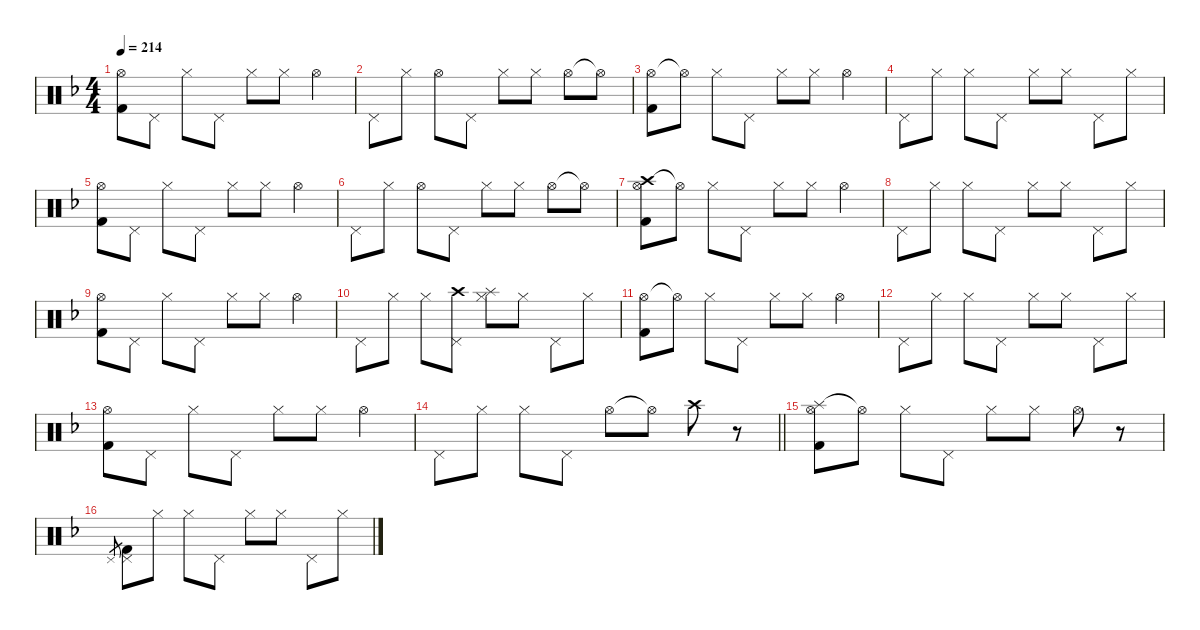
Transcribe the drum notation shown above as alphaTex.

\hideDynamics
\bracketExtendMode nobrackets
\singleTrackTrackNamePolicy hidden
\multiTrackTrackNamePolicy hidden
\firstSystemTrackNameMode fullname
\firstSystemTrackNameOrientation horizontal
\otherSystemsTrackNameOrientation horizontal
\track ("Drumkit" "Drums") {defaultSystemsLayout 4 instrument percussion}
\staff {score}
\articulation defaults
\ts (4 4)
\tempo 214
\clef neutral
\ks dminor
("Hi-Hat (open)"{acc forcenatural} "Kick (hit) 2"{acc forcenatural}).8{dy mf beam Down} "Pedal Hi-Hat (hit)"{acc forcenatural}.8{beam Down} "Hi-Hat (closed)"{acc forcenatural}.8{dy mp beam Down} "Pedal Hi-Hat (hit)"{acc forcenatural}.8{beam Down} "Hi-Hat (closed)"{acc forcenatural}.8{beam Down} "Hi-Hat (closed)"{acc forcenatural}.8{beam Down} "Hi-Hat (open)"{acc forcenatural}.4{dy mf beam Down} |
"Pedal Hi-Hat (hit)"{acc forcenatural}.8{beam Down} "Hi-Hat (closed)"{acc forcenatural}.8{dy mp beam Down} "Hi-Hat (open)"{acc forcenatural}.8{dy mf beam Down} "Pedal Hi-Hat (hit)"{acc forcenatural}.8{dy f beam Down} "Hi-Hat (closed)"{acc forcenatural}.8{dy mp beam Down} "Hi-Hat (closed)"{acc forcenatural}.8{beam Down} "Hi-Hat (open)"{acc forcenatural}.8{dy mf beam Down} "Hi-Hat (open)"{t acc forcenatural}.8{dy f beam Down} |
("Hi-Hat (open)"{acc forcenatural} "Kick (hit) 2"{acc forcenatural}).8{dy mf beam Down} "Hi-Hat (open)"{t acc forcenatural}.8{dy f beam Down} "Hi-Hat (closed)"{acc forcenatural}.8{dy mp beam Down} "Pedal Hi-Hat (hit)"{acc forcenatural}.8{beam Down} "Hi-Hat (closed)"{acc forcenatural}.8{beam Down} "Hi-Hat (closed)"{acc forcenatural}.8{beam Down} "Hi-Hat (open)"{acc forcenatural}.4{dy mf beam Down} |
"Pedal Hi-Hat (hit)"{acc forcenatural}.8{beam Down} "Hi-Hat (closed)"{acc forcenatural}.8{dy mp beam Down} "Hi-Hat (closed)"{acc forcenatural}.8{beam Down} "Pedal Hi-Hat (hit)"{acc forcenatural}.8{dy mf beam Down} "Hi-Hat (closed)"{acc forcenatural}.8{dy mp beam Down} "Hi-Hat (closed)"{acc forcenatural}.8{beam Down} "Pedal Hi-Hat (hit)"{acc forcenatural}.8{dy mf beam Down} "Hi-Hat (closed)"{acc forcenatural}.8{dy mp beam Down} |
("Hi-Hat (open)"{acc forcenatural} "Kick (hit) 2"{acc forcenatural}).8{dy mf beam Down} "Pedal Hi-Hat (hit)"{acc forcenatural}.8{beam Down} "Hi-Hat (closed)"{acc forcenatural}.8{dy mp beam Down} "Pedal Hi-Hat (hit)"{acc forcenatural}.8{beam Down} "Hi-Hat (closed)"{acc forcenatural}.8{beam Down} "Hi-Hat (closed)"{acc forcenatural}.8{beam Down} "Hi-Hat (open)"{acc forcenatural}.4{dy mf beam Down} |
"Pedal Hi-Hat (hit)"{acc forcenatural}.8{beam Down} "Hi-Hat (closed)"{acc forcenatural}.8{dy mp beam Down} "Hi-Hat (open)"{acc forcenatural}.8{dy mf beam Down} "Pedal Hi-Hat (hit)"{acc forcenatural}.8{dy f beam Down} "Hi-Hat (closed)"{acc forcenatural}.8{dy mp beam Down} "Hi-Hat (closed)"{acc forcenatural}.8{beam Down} "Hi-Hat (open)"{acc forcenatural}.8{dy mf beam Down} "Hi-Hat (open)"{t acc forcenatural}.8{dy f beam Down} |
("Crash high (hit)"{acc forcenatural} "Hi-Hat (open)"{acc forcenatural} "Kick (hit) 2"{acc forcenatural}).8{dy mp beam Down} "Hi-Hat (open)"{t acc forcenatural}.8{dy f beam Down} "Hi-Hat (closed)"{acc forcenatural}.8{dy mp beam Down} "Pedal Hi-Hat (hit)"{acc forcenatural}.8{beam Down} "Hi-Hat (closed)"{acc forcenatural}.8{beam Down} "Hi-Hat (closed)"{acc forcenatural}.8{beam Down} "Hi-Hat (open)"{acc forcenatural}.4{dy mf beam Down} |
"Pedal Hi-Hat (hit)"{acc forcenatural}.8{beam Down} "Hi-Hat (closed)"{acc forcenatural}.8{dy mp beam Down} "Hi-Hat (closed)"{acc forcenatural}.8{beam Down} "Pedal Hi-Hat (hit)"{acc forcenatural}.8{dy mf beam Down} "Hi-Hat (closed)"{acc forcenatural}.8{dy mp beam Down} "Hi-Hat (closed)"{acc forcenatural}.8{beam Down} "Pedal Hi-Hat (hit)"{acc forcenatural}.8{dy mf beam Down} "Hi-Hat (closed)"{acc forcenatural}.8{dy mp beam Down} |
("Hi-Hat (open)"{acc forcenatural} "Kick (hit) 2"{acc forcenatural}).8{dy mf beam Down} "Pedal Hi-Hat (hit)"{acc forcenatural}.8{beam Down} "Hi-Hat (closed)"{acc forcenatural}.8{dy mp beam Down} "Pedal Hi-Hat (hit)"{acc forcenatural}.8{beam Down} "Hi-Hat (closed)"{acc forcenatural}.8{beam Down} "Hi-Hat (closed)"{acc forcenatural}.8{beam Down} "Hi-Hat (open)"{acc forcenatural}.4{dy mf beam Down} |
"Pedal Hi-Hat (hit)"{acc forcenatural}.8{beam Down} "Hi-Hat (closed)"{acc forcenatural}.8{dy mp beam Down} "Hi-Hat (closed)"{acc forcenatural}.8{beam Down} ("Crash high (hit)"{acc forcenatural} "Pedal Hi-Hat (hit)"{acc forcenatural}).8{beam Down} ("Splash (hit)"{acc forcenatural} "Hi-Hat (closed)"{acc forcenatural}).8{beam Down} "Hi-Hat (closed)"{acc forcenatural}.8{beam Down} "Pedal Hi-Hat (hit)"{acc forcenatural}.8{dy mf beam Down} "Hi-Hat (closed)"{acc forcenatural}.8{dy mp beam Down} |
("Hi-Hat (open)"{acc forcenatural} "Kick (hit) 2"{acc forcenatural}).8{dy mf beam Down} "Hi-Hat (open)"{t acc forcenatural}.8{dy f beam Down} "Hi-Hat (closed)"{acc forcenatural}.8{dy mp beam Down} "Pedal Hi-Hat (hit)"{acc forcenatural}.8{beam Down} "Hi-Hat (closed)"{acc forcenatural}.8{beam Down} "Hi-Hat (closed)"{acc forcenatural}.8{beam Down} "Hi-Hat (open)"{acc forcenatural}.4{dy mf beam Down} |
"Pedal Hi-Hat (hit)"{acc forcenatural}.8{beam Down} "Hi-Hat (closed)"{acc forcenatural}.8{dy mp beam Down} "Hi-Hat (closed)"{acc forcenatural}.8{beam Down} "Pedal Hi-Hat (hit)"{acc forcenatural}.8{dy mf beam Down} "Hi-Hat (closed)"{acc forcenatural}.8{dy mp beam Down} "Hi-Hat (closed)"{acc forcenatural}.8{beam Down} "Pedal Hi-Hat (hit)"{acc forcenatural}.8{dy mf beam Down} "Hi-Hat (closed)"{acc forcenatural}.8{dy mp beam Down} |
("Hi-Hat (open)"{acc forcenatural} "Kick (hit) 2"{acc forcenatural}).8{dy mf beam Down} "Pedal Hi-Hat (hit)"{acc forcenatural}.8{beam Down} "Hi-Hat (closed)"{acc forcenatural}.8{dy mp beam Down} "Pedal Hi-Hat (hit)"{acc forcenatural}.8{beam Down} "Hi-Hat (closed)"{acc forcenatural}.8{beam Down} "Hi-Hat (closed)"{acc forcenatural}.8{beam Down} "Hi-Hat (open)"{acc forcenatural}.4{dy mf beam Down} |
\barLineRight lightlight "Pedal Hi-Hat (hit)"{acc forcenatural}.8{beam Down} "Hi-Hat (closed)"{acc forcenatural}.8{dy mp beam Down} "Hi-Hat (closed)"{acc forcenatural}.8{beam Down} "Pedal Hi-Hat (hit)"{acc forcenatural}.8{dy mf beam Down} "Hi-Hat (open)"{acc forcenatural}.8{beam Down} "Hi-Hat (open)"{t acc forcenatural}.8{dy f beam Down} "Crash high (hit)"{acc forcenatural}.8{dy mf beam Down}
r.8{beam Down} |
("Splash (hit)"{acc forcenatural} "Hi-Hat (open)"{acc forcenatural} "Kick (hit) 2"{acc forcenatural}).8{dy mp beam Down} "Hi-Hat (open)"{t acc forcenatural}.8{beam Down} "Hi-Hat (closed)"{acc forcenatural}.8{dy p beam Down} "Pedal Hi-Hat (hit)"{acc forcenatural}.8{beam Down} "Hi-Hat (closed)"{acc forcenatural}.8{dy mp beam Down} "Hi-Hat (closed)"{acc forcenatural}.8{beam Down} "Hi-Hat (open)"{acc forcenatural}.8{beam Down} r.8{beam Down} |
"Pedal Hi-Hat (hit)"{acc forcenatural}.8{gr dy p beam Up} ("Pedal Hi-Hat (hit)"{acc forcenatural} "Kick (hit) 2"{acc forcenatural}).8{beam Down} "Hi-Hat (closed)"{acc forcenatural}.8{beam Down} "Hi-Hat (closed)"{acc forcenatural}.8{dy mp beam Down} "Pedal Hi-Hat (hit)"{acc forcenatural}.8{dy mf beam Down} "Hi-Hat (closed)"{acc forcenatural}.8{dy mp beam Down} "Hi-Hat (closed)"{acc forcenatural}.8{beam Down} "Pedal Hi-Hat (hit)"{acc forcenatural}.8{dy p beam Down} "Hi-Hat (closed)"{acc forcenatural}.8{beam Down}
